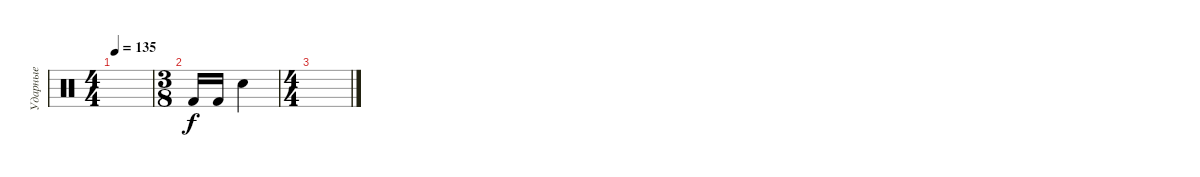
\track ("Ударные" "Ударные") {instrument percussion}
\staff {score}
\articulation defaults
\ts (4 4)
\tempo 135
\clef neutral
\ks c
|
\ts (3 8)
"Kick (hit) 2".16 "Kick (hit) 2".16 "Snare (hit) 2".4 |
\ts (4 4)
